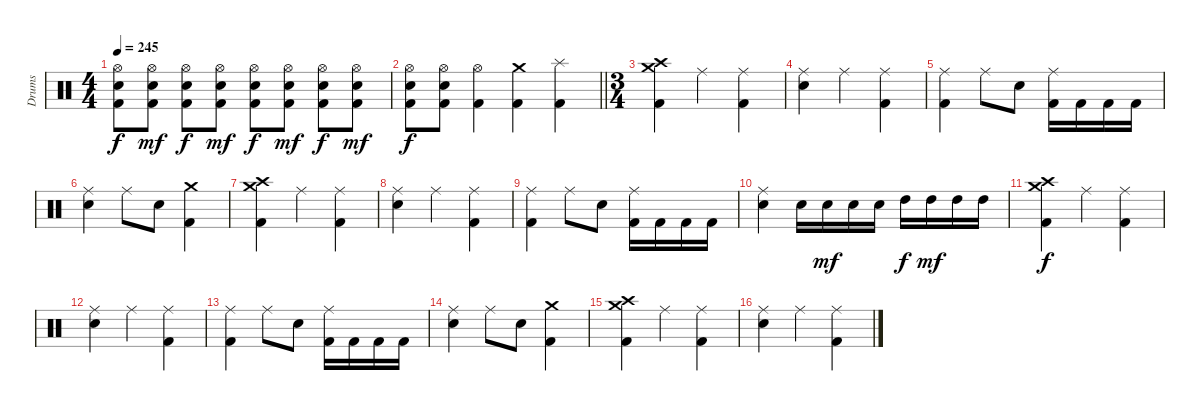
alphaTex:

\track ("Drums" "Drums") {instrument percussion}
\staff {score}
\articulation defaults
\ts (4 4)
\tempo 245
\clef neutral
\ks c
("Hi-Hat (open)" "Electric Snare (hit)" "Kick (hit) 2").8{dy f} ("Hi-Hat (open)" "Electric Snare (hit)" "Kick (hit) 2").8{dy mf} ("Hi-Hat (open)" "Electric Snare (hit)" "Kick (hit) 2").8{dy f} ("Hi-Hat (open)" "Electric Snare (hit)" "Kick (hit) 2").8{dy mf} ("Hi-Hat (open)" "Electric Snare (hit)" "Kick (hit) 2").8{dy f} ("Hi-Hat (open)" "Electric Snare (hit)" "Kick (hit) 2").8{dy mf} ("Hi-Hat (open)" "Electric Snare (hit)" "Kick (hit) 2").8{dy f} ("Hi-Hat (open)" "Electric Snare (hit)" "Kick (hit) 2").8{dy mf} |
\barLineRight lightlight
("Hi-Hat (open)" "Electric Snare (hit)" "Kick (hit) 2").8{dy f} ("Hi-Hat (open)" "Electric Snare (hit)" "Kick (hit) 2").8 ("Hi-Hat (open)" "Kick (hit) 2").4 ("Crash medium (hit)" "Kick (hit) 2").4 ("Splash (hit)" "Kick (hit) 2").4 |
\ts (3 4)
("Crash high (hit)" "Crash medium (hit)" "Kick (hit) 2").4 "Ride (middle)".4 ("Ride (middle)" "Kick (hit) 2").4 |
("Ride (middle)" "Electric Snare (hit)").4 "Ride (middle)".4 ("Ride (middle)" "Kick (hit) 2").4 |
("Ride (middle)" "Kick (hit) 2").4 "Ride (middle)".8 "Electric Snare (hit)".8 ("Ride (middle)" "Kick (hit) 2").16 "Kick (hit) 2".16 "Kick (hit) 2".16 "Kick (hit) 2".16 |
("Ride (middle)" "Electric Snare (hit)").4 "Ride (middle)".8 "Electric Snare (hit)".8 ("Crash medium (hit)" "Kick (hit) 2").4 |
("Crash high (hit)" "Crash medium (hit)" "Kick (hit) 2").4 "Ride (middle)".4 ("Ride (middle)" "Kick (hit) 2").4 |
("Ride (middle)" "Electric Snare (hit)").4 "Ride (middle)".4 ("Ride (middle)" "Kick (hit) 2").4 |
("Ride (middle)" "Kick (hit) 2").4 "Ride (middle)".8 "Electric Snare (hit)".8 ("Ride (middle)" "Kick (hit) 2").16 "Kick (hit) 2".16 "Kick (hit) 2".16 "Kick (hit) 2".16 |
("Ride (middle)" "Electric Snare (hit)").4 "Electric Snare (hit)".16 "Electric Snare (hit)".16{dy mf} "Electric Snare (hit)".16 "Electric Snare (hit)".16 "High Tom (hit)".16{dy f} "High Tom (hit)".16{dy mf} "High Tom (hit)".16 "High Tom (hit)".16 |
("Crash high (hit)" "Crash medium (hit)" "Kick (hit) 2").4{dy f} "Ride (middle)".4 ("Ride (middle)" "Kick (hit) 2").4 |
("Ride (middle)" "Electric Snare (hit)").4 "Ride (middle)".4 ("Ride (middle)" "Kick (hit) 2").4 |
("Ride (middle)" "Kick (hit) 2").4 "Ride (middle)".8 "Electric Snare (hit)".8 ("Ride (middle)" "Kick (hit) 2").16 "Kick (hit) 2".16 "Kick (hit) 2".16 "Kick (hit) 2".16 |
("Ride (middle)" "Electric Snare (hit)").4 "Ride (middle)".8 "Electric Snare (hit)".8 ("Crash medium (hit)" "Kick (hit) 2").4 |
("Crash high (hit)" "Crash medium (hit)" "Kick (hit) 2").4 "Ride (middle)".4 ("Ride (middle)" "Kick (hit) 2").4 |
("Ride (middle)" "Electric Snare (hit)").4 "Ride (middle)".4 ("Ride (middle)" "Kick (hit) 2").4
